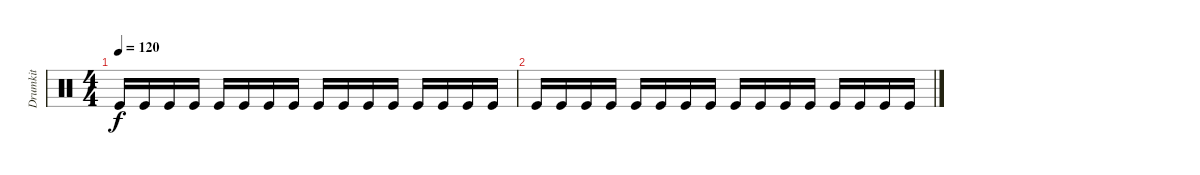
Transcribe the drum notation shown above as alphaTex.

\track ("Drumkit" "Drumkit") {instrument percussion}
\staff {score}
\articulation defaults
\ts (4 4)
\tempo 120
\clef neutral
\ks c "Kick (hit)".16{dy f} "Kick (hit)".16 "Kick (hit)".16 "Kick (hit)".16 "Kick (hit)".16 "Kick (hit)".16 "Kick (hit)".16 "Kick (hit)".16 "Kick (hit)".16 "Kick (hit)".16 "Kick (hit)".16 "Kick (hit)".16 "Kick (hit)".16 "Kick (hit)".16 "Kick (hit)".16 "Kick (hit)".16
|
"Kick (hit)".16 "Kick (hit)".16 "Kick (hit)".16 "Kick (hit)".16 "Kick (hit)".16 "Kick (hit)".16 "Kick (hit)".16 "Kick (hit)".16 "Kick (hit)".16 "Kick (hit)".16 "Kick (hit)".16 "Kick (hit)".16 "Kick (hit)".16 "Kick (hit)".16 "Kick (hit)".16 "Kick (hit)".16
